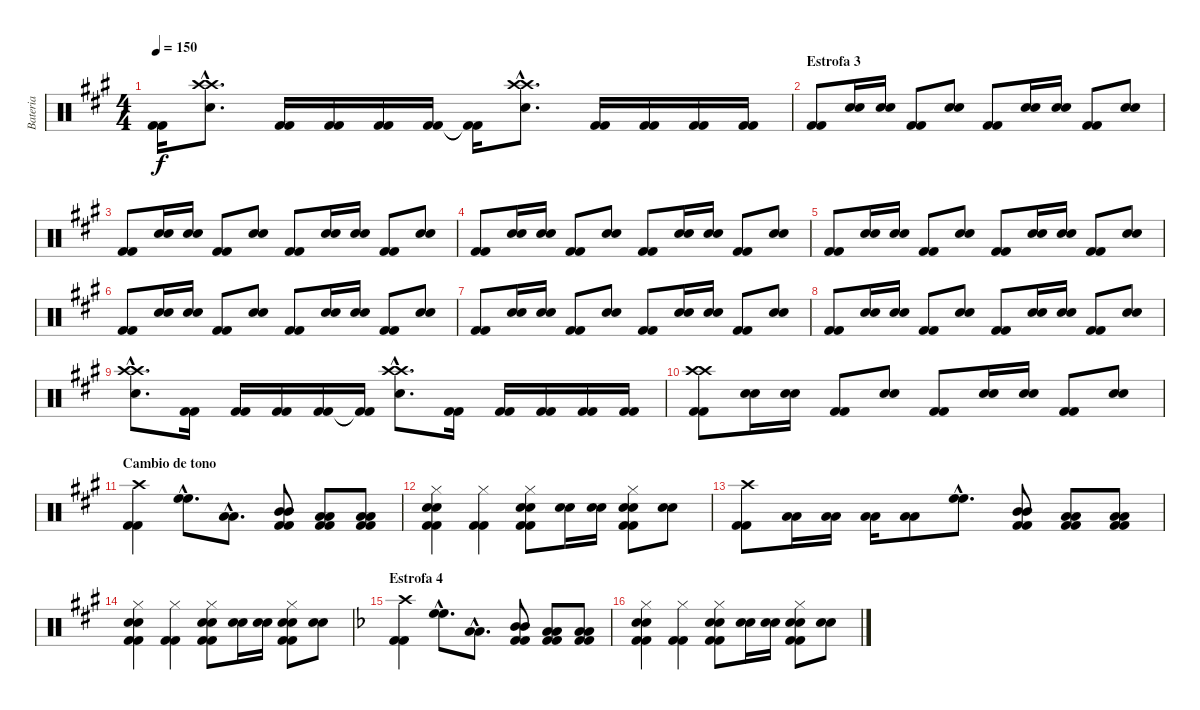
\track ("Bateria" "Bateria") {instrument percussion}
\staff {score}
\articulation defaults
\ts (4 4)
\tempo 150
\clef neutral
\ks a
("Kick (hit) 2" "Kick (hit) 2").16{dy f} ("Crash high (hit)"{hac} "Crash high (hit)"{hac} "Electric Snare (hit)"{hac}).8{d} ("Kick (hit) 2" "Kick (hit) 2").16 ("Kick (hit) 2" "Kick (hit) 2").16 ("Kick (hit) 2" "Kick (hit) 2").16 ("Kick (hit) 2" "Kick (hit) 2").16 ("Kick (hit) 2"{t} "Kick (hit) 2"{t}).16 ("Crash high (hit)"{hac} "Crash high (hit)"{hac} "Electric Snare (hit)"{hac}).8{d} ("Kick (hit) 2" "Kick (hit) 2").16 ("Kick (hit) 2" "Kick (hit) 2").16 ("Kick (hit) 2" "Kick (hit) 2").16 ("Kick (hit) 2" "Kick (hit) 2").16 |
\section ("" "Estrofa 3")
("Kick (hit) 2" "Kick (hit) 2").8 ("Electric Snare (hit)" "Snare (hit) 2").16 ("Electric Snare (hit)" "Snare (hit) 2").16 ("Kick (hit) 2" "Kick (hit) 2").8 ("Electric Snare (hit)" "Snare (hit) 2").8 ("Kick (hit) 2" "Kick (hit) 2").8 ("Electric Snare (hit)" "Snare (hit) 2").16 ("Electric Snare (hit)" "Snare (hit) 2").16 ("Kick (hit) 2" "Kick (hit) 2").8 ("Electric Snare (hit)" "Snare (hit) 2").8 |
("Kick (hit) 2" "Kick (hit) 2").8 ("Electric Snare (hit)" "Snare (hit) 2").16 ("Electric Snare (hit)" "Snare (hit) 2").16 ("Kick (hit) 2" "Kick (hit) 2").8 ("Electric Snare (hit)" "Snare (hit) 2").8 ("Kick (hit) 2" "Kick (hit) 2").8 ("Electric Snare (hit)" "Snare (hit) 2").16 ("Electric Snare (hit)" "Snare (hit) 2").16 ("Kick (hit) 2" "Kick (hit) 2").8 ("Electric Snare (hit)" "Snare (hit) 2").8 |
("Kick (hit) 2" "Kick (hit) 2").8 ("Electric Snare (hit)" "Snare (hit) 2").16 ("Electric Snare (hit)" "Snare (hit) 2").16 ("Kick (hit) 2" "Kick (hit) 2").8 ("Electric Snare (hit)" "Snare (hit) 2").8 ("Kick (hit) 2" "Kick (hit) 2").8 ("Electric Snare (hit)" "Snare (hit) 2").16 ("Electric Snare (hit)" "Snare (hit) 2").16 ("Kick (hit) 2" "Kick (hit) 2").8 ("Electric Snare (hit)" "Snare (hit) 2").8 |
("Kick (hit) 2" "Kick (hit) 2").8 ("Electric Snare (hit)" "Snare (hit) 2").16 ("Electric Snare (hit)" "Snare (hit) 2").16 ("Kick (hit) 2" "Kick (hit) 2").8 ("Electric Snare (hit)" "Snare (hit) 2").8 ("Kick (hit) 2" "Kick (hit) 2").8 ("Electric Snare (hit)" "Snare (hit) 2").16 ("Electric Snare (hit)" "Snare (hit) 2").16 ("Kick (hit) 2" "Kick (hit) 2").8 ("Electric Snare (hit)" "Snare (hit) 2").8 |
("Kick (hit) 2" "Kick (hit) 2").8 ("Electric Snare (hit)" "Snare (hit) 2").16 ("Electric Snare (hit)" "Snare (hit) 2").16 ("Kick (hit) 2" "Kick (hit) 2").8 ("Electric Snare (hit)" "Snare (hit) 2").8 ("Kick (hit) 2" "Kick (hit) 2").8 ("Electric Snare (hit)" "Snare (hit) 2").16 ("Electric Snare (hit)" "Snare (hit) 2").16 ("Kick (hit) 2" "Kick (hit) 2").8 ("Electric Snare (hit)" "Snare (hit) 2").8 |
("Kick (hit) 2" "Kick (hit) 2").8 ("Electric Snare (hit)" "Snare (hit) 2").16 ("Electric Snare (hit)" "Snare (hit) 2").16 ("Kick (hit) 2" "Kick (hit) 2").8 ("Electric Snare (hit)" "Snare (hit) 2").8 ("Kick (hit) 2" "Kick (hit) 2").8 ("Electric Snare (hit)" "Snare (hit) 2").16 ("Electric Snare (hit)" "Snare (hit) 2").16 ("Kick (hit) 2" "Kick (hit) 2").8 ("Electric Snare (hit)" "Snare (hit) 2").8 |
("Kick (hit) 2" "Kick (hit) 2").8 ("Electric Snare (hit)" "Snare (hit) 2").16 ("Electric Snare (hit)" "Snare (hit) 2").16 ("Kick (hit) 2" "Kick (hit) 2").8 ("Electric Snare (hit)" "Snare (hit) 2").8 ("Kick (hit) 2" "Kick (hit) 2").8 ("Electric Snare (hit)" "Snare (hit) 2").16 ("Electric Snare (hit)" "Snare (hit) 2").16 ("Kick (hit) 2" "Kick (hit) 2").8 ("Electric Snare (hit)" "Snare (hit) 2").8 |
("Crash high (hit)"{hac} "Crash high (hit)"{hac} "Electric Snare (hit)"{hac}).8{d} ("Kick (hit) 2" "Kick (hit) 2").16 ("Kick (hit) 2" "Kick (hit) 2").16 ("Kick (hit) 2" "Kick (hit) 2").16 ("Kick (hit) 2" "Kick (hit) 2").16 ("Kick (hit) 2"{t} "Kick (hit) 2"{t}).16 ("Crash high (hit)"{hac} "Crash high (hit)"{hac} "Electric Snare (hit)"{hac}).8{d} ("Kick (hit) 2" "Kick (hit) 2").16 ("Kick (hit) 2" "Kick (hit) 2").16 ("Kick (hit) 2" "Kick (hit) 2").16 ("Kick (hit) 2" "Kick (hit) 2").16 ("Kick (hit) 2" "Kick (hit) 2").16 |
("Crash high (hit)" "Crash high (hit)" "Kick (hit) 2" "Kick (hit) 2").8 ("Electric Snare (hit)" "Snare (hit) 2").16 ("Electric Snare (hit)" "Snare (hit) 2").16 ("Kick (hit) 2" "Kick (hit) 2").8 ("Electric Snare (hit)" "Snare (hit) 2").8 ("Kick (hit) 2" "Kick (hit) 2").8 ("Electric Snare (hit)" "Snare (hit) 2").16 ("Electric Snare (hit)" "Snare (hit) 2").16 ("Kick (hit) 2" "Kick (hit) 2").8 ("Electric Snare (hit)" "Snare (hit) 2").8 |
\section ("" "Cambio de tono")
("Crash high (hit)" "Kick (hit) 2" "Kick (hit) 2").4 ("High Floor Tom (hit)"{hac} "High Floor Tom (hit)"{hac}).8{d} ("Low Tom (hit)"{hac} "Low Tom (hit)"{hac}).8{d} ("Mid Tom (hit)" "Mid Tom (hit)" "Kick (hit) 2" "Kick (hit) 2").8 ("Low Tom (hit)" "Low Tom (hit)" "Kick (hit) 2" "Kick (hit) 2").8 ("Low Floor Tom (hit)" "Low Floor Tom (hit)" "Kick (hit) 2" "Kick (hit) 2").8 |
("Hi-Hat (closed)" "Electric Snare (hit)" "Snare (hit) 2" "Kick (hit) 2" "Kick (hit) 2").4 ("Hi-Hat (closed)" "Kick (hit) 2" "Kick (hit) 2").4 ("Hi-Hat (closed)" "Electric Snare (hit)" "Snare (hit) 2" "Kick (hit) 2" "Kick (hit) 2").8 ("Electric Snare (hit)" "Snare (hit) 2").16 ("Electric Snare (hit)" "Snare (hit) 2").16 ("Hi-Hat (closed)" "Electric Snare (hit)" "Snare (hit) 2" "Kick (hit) 2" "Kick (hit) 2").8 ("Electric Snare (hit)" "Snare (hit) 2").8 |
("Crash high (hit)" "Kick (hit) 2" "Kick (hit) 2").8 ("Low Tom (hit)" "Low Tom (hit)").16 ("Low Tom (hit)" "Low Tom (hit)").16 ("Low Tom (hit)" "Low Tom (hit)").16 ("Low Tom (hit)" "Low Tom (hit)").8 ("High Floor Tom (hit)"{hac} "High Floor Tom (hit)"{hac}).8{d} ("Mid Tom (hit)" "Mid Tom (hit)" "Kick (hit) 2" "Kick (hit) 2").8 ("Low Tom (hit)" "Low Tom (hit)" "Kick (hit) 2" "Kick (hit) 2").8 ("Low Floor Tom (hit)" "Low Floor Tom (hit)" "Kick (hit) 2" "Kick (hit) 2").8 |
("Hi-Hat (closed)" "Electric Snare (hit)" "Snare (hit) 2" "Kick (hit) 2" "Kick (hit) 2").4 ("Hi-Hat (closed)" "Kick (hit) 2" "Kick (hit) 2").4 ("Hi-Hat (closed)" "Electric Snare (hit)" "Snare (hit) 2" "Kick (hit) 2" "Kick (hit) 2").8 ("Electric Snare (hit)" "Snare (hit) 2").16 ("Electric Snare (hit)" "Snare (hit) 2").16 ("Hi-Hat (closed)" "Electric Snare (hit)" "Snare (hit) 2" "Kick (hit) 2" "Kick (hit) 2").8 ("Electric Snare (hit)" "Snare (hit) 2").8 |
\section ("" "Estrofa 4")
\ks dminor
("Crash high (hit)" "Kick (hit) 2" "Kick (hit) 2").4 ("High Floor Tom (hit)"{hac} "High Floor Tom (hit)"{hac}).8{d} ("Low Tom (hit)"{hac} "Low Tom (hit)"{hac}).8{d} ("Mid Tom (hit)" "Mid Tom (hit)" "Kick (hit) 2" "Kick (hit) 2").8 ("Low Tom (hit)" "Low Tom (hit)" "Kick (hit) 2" "Kick (hit) 2").8 ("Low Floor Tom (hit)" "Low Floor Tom (hit)" "Kick (hit) 2" "Kick (hit) 2").8 |
("Hi-Hat (closed)" "Electric Snare (hit)" "Snare (hit) 2" "Kick (hit) 2" "Kick (hit) 2").4 ("Hi-Hat (closed)" "Kick (hit) 2" "Kick (hit) 2").4 ("Hi-Hat (closed)" "Electric Snare (hit)" "Snare (hit) 2" "Kick (hit) 2" "Kick (hit) 2").8 ("Electric Snare (hit)" "Snare (hit) 2").16 ("Electric Snare (hit)" "Snare (hit) 2").16 ("Hi-Hat (closed)" "Electric Snare (hit)" "Snare (hit) 2" "Kick (hit) 2" "Kick (hit) 2").8 ("Electric Snare (hit)" "Snare (hit) 2").8
